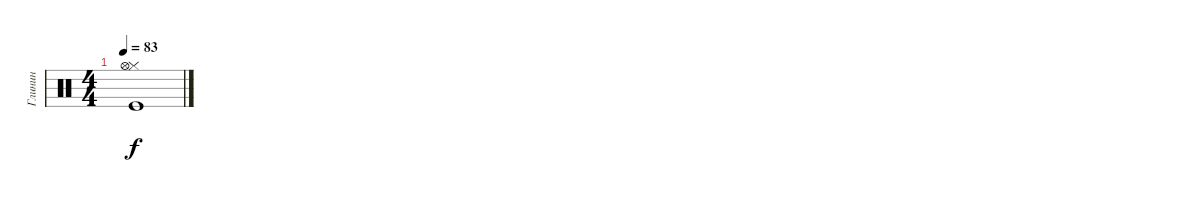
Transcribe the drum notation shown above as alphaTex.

\track ("Глинин" "Глинин") {instrument percussion}
\staff {score}
\articulation defaults
\ts (4 4)
\tempo 83
\clef neutral
\ks c
("Hi-Hat (closed)" "Kick (hit)" "Hi-Hat (open)").1{dy f}
